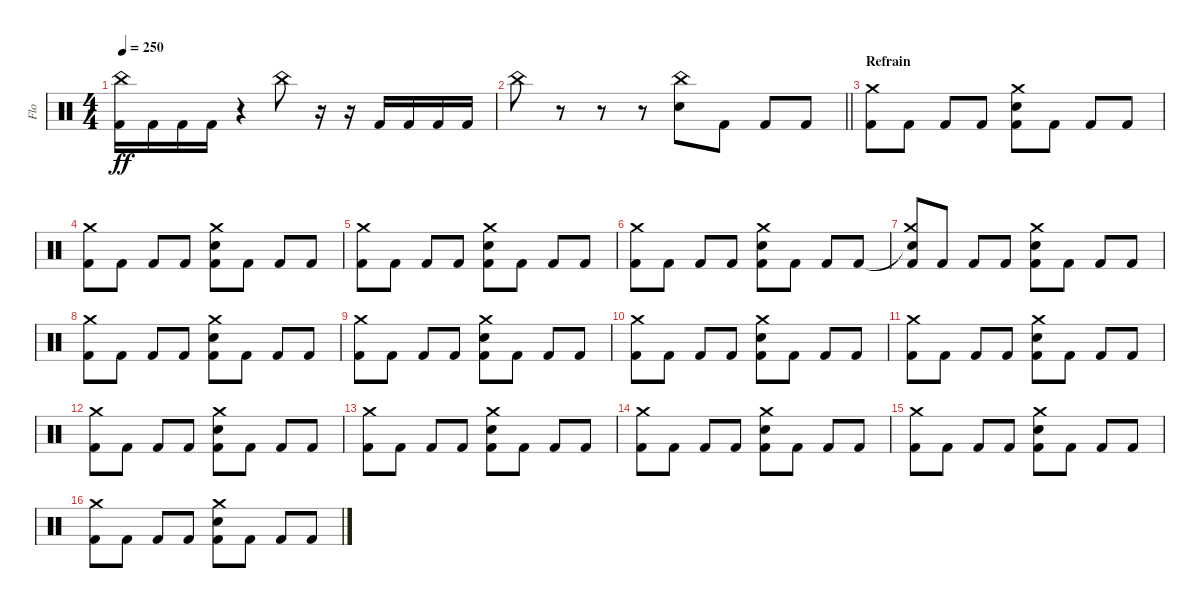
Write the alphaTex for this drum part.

\track ("Flo" "Flo") {instrument percussion}
\staff {score}
\articulation defaults
\ts (4 4)
\tempo 250
\clef neutral
\ks c
("China (hit)" "Kick (hit) 2").16{dy ff} "Kick (hit) 2".16 "Kick (hit) 2".16 "Kick (hit) 2".16 r.4 "China (hit)".8 r.16 r.16 "Kick (hit) 2".16 "Kick (hit) 2".16 "Kick (hit) 2".16 "Kick (hit) 2".16 |
\barLineRight lightlight "China (hit)".8
r.8 r.8 r.8 ("China (hit)" "Electric Snare (hit)").8 "Kick (hit) 2".8 "Kick (hit) 2".8 "Kick (hit) 2".8 |
\section ("" "Refrain")
("Crash medium (hit)" "Kick (hit) 2").8 "Kick (hit) 2".8 "Kick (hit) 2".8 "Kick (hit) 2".8 ("Crash medium (hit)" "Electric Snare (hit)" "Kick (hit) 2").8 "Kick (hit) 2".8 "Kick (hit) 2".8 "Kick (hit) 2".8 |
("Crash medium (hit)" "Kick (hit) 2").8 "Kick (hit) 2".8 "Kick (hit) 2".8 "Kick (hit) 2".8 ("Crash medium (hit)" "Electric Snare (hit)" "Kick (hit) 2").8 "Kick (hit) 2".8 "Kick (hit) 2".8 "Kick (hit) 2".8 |
("Crash medium (hit)" "Kick (hit) 2").8 "Kick (hit) 2".8 "Kick (hit) 2".8 "Kick (hit) 2".8 ("Crash medium (hit)" "Electric Snare (hit)" "Kick (hit) 2").8 "Kick (hit) 2".8 "Kick (hit) 2".8 "Kick (hit) 2".8 |
("Crash medium (hit)" "Kick (hit) 2").8 "Kick (hit) 2".8 "Kick (hit) 2".8 "Kick (hit) 2".8 ("Crash medium (hit)" "Electric Snare (hit)" "Kick (hit) 2").8 "Kick (hit) 2".8 "Kick (hit) 2".8 "Kick (hit) 2".8 |
("Snare (hit)"{t} "Crash medium (hit)" "Kick (hit) 2").8 "Kick (hit) 2".8 "Kick (hit) 2".8 "Kick (hit) 2".8 ("Crash medium (hit)" "Electric Snare (hit)" "Kick (hit) 2").8 "Kick (hit) 2".8 "Kick (hit) 2".8 "Kick (hit) 2".8 |
("Crash medium (hit)" "Kick (hit) 2").8 "Kick (hit) 2".8 "Kick (hit) 2".8 "Kick (hit) 2".8 ("Crash medium (hit)" "Electric Snare (hit)" "Kick (hit) 2").8 "Kick (hit) 2".8 "Kick (hit) 2".8 "Kick (hit) 2".8 |
("Crash medium (hit)" "Kick (hit) 2").8 "Kick (hit) 2".8 "Kick (hit) 2".8 "Kick (hit) 2".8 ("Crash medium (hit)" "Electric Snare (hit)" "Kick (hit) 2").8 "Kick (hit) 2".8 "Kick (hit) 2".8 "Kick (hit) 2".8 |
("Crash medium (hit)" "Kick (hit) 2").8 "Kick (hit) 2".8 "Kick (hit) 2".8 "Kick (hit) 2".8 ("Crash medium (hit)" "Electric Snare (hit)" "Kick (hit) 2").8 "Kick (hit) 2".8 "Kick (hit) 2".8 "Kick (hit) 2".8 |
("Crash medium (hit)" "Kick (hit) 2").8 "Kick (hit) 2".8 "Kick (hit) 2".8 "Kick (hit) 2".8 ("Crash medium (hit)" "Electric Snare (hit)" "Kick (hit) 2").8 "Kick (hit) 2".8 "Kick (hit) 2".8 "Kick (hit) 2".8 |
("Crash medium (hit)" "Kick (hit) 2").8 "Kick (hit) 2".8 "Kick (hit) 2".8 "Kick (hit) 2".8 ("Crash medium (hit)" "Electric Snare (hit)" "Kick (hit) 2").8 "Kick (hit) 2".8 "Kick (hit) 2".8 "Kick (hit) 2".8 |
("Crash medium (hit)" "Kick (hit) 2").8 "Kick (hit) 2".8 "Kick (hit) 2".8 "Kick (hit) 2".8 ("Crash medium (hit)" "Electric Snare (hit)" "Kick (hit) 2").8 "Kick (hit) 2".8 "Kick (hit) 2".8 "Kick (hit) 2".8 |
("Crash medium (hit)" "Kick (hit) 2").8 "Kick (hit) 2".8 "Kick (hit) 2".8 "Kick (hit) 2".8 ("Crash medium (hit)" "Electric Snare (hit)" "Kick (hit) 2").8 "Kick (hit) 2".8 "Kick (hit) 2".8 "Kick (hit) 2".8 |
("Crash medium (hit)" "Kick (hit) 2").8 "Kick (hit) 2".8 "Kick (hit) 2".8 "Kick (hit) 2".8 ("Crash medium (hit)" "Electric Snare (hit)" "Kick (hit) 2").8 "Kick (hit) 2".8 "Kick (hit) 2".8 "Kick (hit) 2".8 |
("Crash medium (hit)" "Kick (hit) 2").8 "Kick (hit) 2".8 "Kick (hit) 2".8 "Kick (hit) 2".8 ("Crash medium (hit)" "Electric Snare (hit)" "Kick (hit) 2").8 "Kick (hit) 2".8 "Kick (hit) 2".8 "Kick (hit) 2".8
